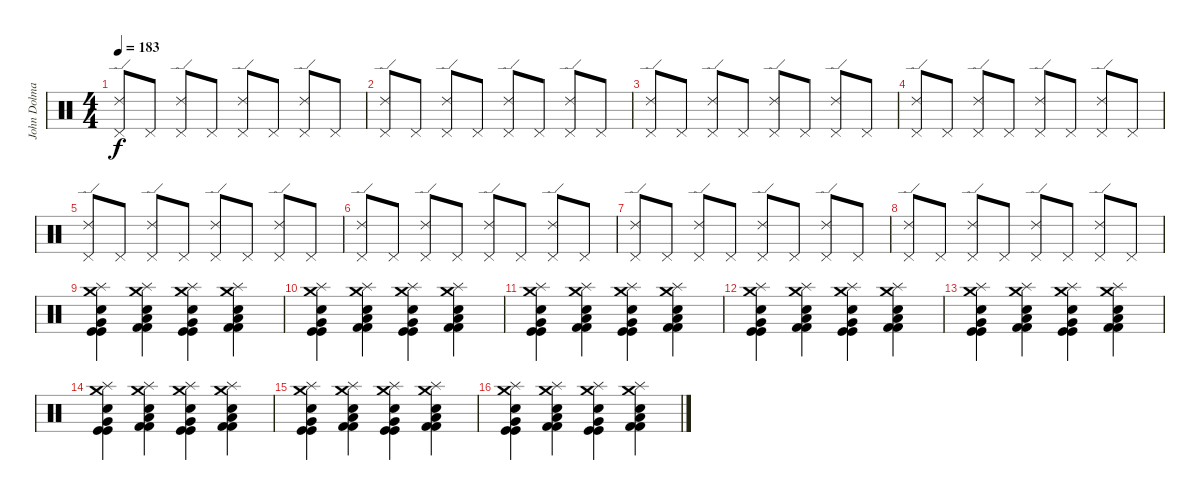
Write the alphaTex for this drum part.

\track ("John Dolmayan" "John Dolma") {instrument percussion}
\staff {score}
\articulation defaults
\ts (4 4)
\tempo 183
\clef neutral
\ks c
("Pedal Hi-Hat (hit)" "Ride (edge) 2").8{dy f} "Pedal Hi-Hat (hit)".8 ("Pedal Hi-Hat (hit)" "Ride (edge) 2").8 "Pedal Hi-Hat (hit)".8 ("Pedal Hi-Hat (hit)" "Ride (edge) 2").8 "Pedal Hi-Hat (hit)".8 ("Pedal Hi-Hat (hit)" "Ride (edge) 2").8 "Pedal Hi-Hat (hit)".8 |
("Pedal Hi-Hat (hit)" "Ride (edge) 2").8 "Pedal Hi-Hat (hit)".8 ("Pedal Hi-Hat (hit)" "Ride (edge) 2").8 "Pedal Hi-Hat (hit)".8 ("Pedal Hi-Hat (hit)" "Ride (edge) 2").8 "Pedal Hi-Hat (hit)".8 ("Pedal Hi-Hat (hit)" "Ride (edge) 2").8 "Pedal Hi-Hat (hit)".8 |
("Pedal Hi-Hat (hit)" "Ride (edge) 2").8 "Pedal Hi-Hat (hit)".8 ("Pedal Hi-Hat (hit)" "Ride (edge) 2").8 "Pedal Hi-Hat (hit)".8 ("Pedal Hi-Hat (hit)" "Ride (edge) 2").8 "Pedal Hi-Hat (hit)".8 ("Pedal Hi-Hat (hit)" "Ride (edge) 2").8 "Pedal Hi-Hat (hit)".8 |
("Pedal Hi-Hat (hit)" "Ride (edge) 2").8 "Pedal Hi-Hat (hit)".8 ("Pedal Hi-Hat (hit)" "Ride (edge) 2").8 "Pedal Hi-Hat (hit)".8 ("Pedal Hi-Hat (hit)" "Ride (edge) 2").8 "Pedal Hi-Hat (hit)".8 ("Pedal Hi-Hat (hit)" "Ride (edge) 2").8 "Pedal Hi-Hat (hit)".8 |
("Pedal Hi-Hat (hit)" "Ride (edge) 2").8 "Pedal Hi-Hat (hit)".8 ("Pedal Hi-Hat (hit)" "Ride (edge) 2").8 "Pedal Hi-Hat (hit)".8 ("Pedal Hi-Hat (hit)" "Ride (edge) 2").8 "Pedal Hi-Hat (hit)".8 ("Pedal Hi-Hat (hit)" "Ride (edge) 2").8 "Pedal Hi-Hat (hit)".8 |
("Pedal Hi-Hat (hit)" "Ride (edge) 2").8 "Pedal Hi-Hat (hit)".8 ("Pedal Hi-Hat (hit)" "Ride (edge) 2").8 "Pedal Hi-Hat (hit)".8 ("Pedal Hi-Hat (hit)" "Ride (edge) 2").8 "Pedal Hi-Hat (hit)".8 ("Pedal Hi-Hat (hit)" "Ride (edge) 2").8 "Pedal Hi-Hat (hit)".8 |
("Pedal Hi-Hat (hit)" "Ride (edge) 2").8 "Pedal Hi-Hat (hit)".8 ("Pedal Hi-Hat (hit)" "Ride (edge) 2").8 "Pedal Hi-Hat (hit)".8 ("Pedal Hi-Hat (hit)" "Ride (edge) 2").8 "Pedal Hi-Hat (hit)".8 ("Pedal Hi-Hat (hit)" "Ride (edge) 2").8 "Pedal Hi-Hat (hit)".8 |
("Pedal Hi-Hat (hit)" "Ride (edge) 2").8 "Pedal Hi-Hat (hit)".8 ("Pedal Hi-Hat (hit)" "Ride (edge) 2").8 "Pedal Hi-Hat (hit)".8 ("Pedal Hi-Hat (hit)" "Ride (edge) 2").8 "Pedal Hi-Hat (hit)".8 ("Pedal Hi-Hat (hit)" "Ride (edge) 2").8 "Pedal Hi-Hat (hit)".8 |
("Crash medium (hit)" "Kick (hit)" "Kick (hit)" "Electric Snare (hit)" "Very Low Tom (hit)" "Splash (hit)").4 ("Crash medium (hit)" "Kick (hit) 2" "Kick (hit) 2" "Electric Snare (hit)" "Low Tom (hit)" "Splash (hit)").4 ("Crash medium (hit)" "Kick (hit)" "Kick (hit)" "Electric Snare (hit)" "Very Low Tom (hit)" "Splash (hit)").4 ("Crash medium (hit)" "Kick (hit) 2" "Kick (hit) 2" "Electric Snare (hit)" "Low Tom (hit)" "Splash (hit)").4 |
("Crash medium (hit)" "Kick (hit)" "Kick (hit)" "Electric Snare (hit)" "Very Low Tom (hit)" "Splash (hit)").4 ("Crash medium (hit)" "Kick (hit) 2" "Kick (hit) 2" "Electric Snare (hit)" "Low Tom (hit)" "Splash (hit)").4 ("Crash medium (hit)" "Kick (hit)" "Kick (hit)" "Electric Snare (hit)" "Very Low Tom (hit)" "Splash (hit)").4 ("Crash medium (hit)" "Kick (hit) 2" "Kick (hit) 2" "Electric Snare (hit)" "Low Tom (hit)" "Splash (hit)").4 |
("Crash medium (hit)" "Kick (hit)" "Kick (hit)" "Electric Snare (hit)" "Very Low Tom (hit)" "Splash (hit)").4 ("Crash medium (hit)" "Kick (hit) 2" "Kick (hit) 2" "Electric Snare (hit)" "Low Tom (hit)" "Splash (hit)").4 ("Crash medium (hit)" "Kick (hit)" "Kick (hit)" "Electric Snare (hit)" "Very Low Tom (hit)" "Splash (hit)").4 ("Crash medium (hit)" "Kick (hit) 2" "Kick (hit) 2" "Electric Snare (hit)" "Low Tom (hit)" "Splash (hit)").4 |
("Crash medium (hit)" "Kick (hit)" "Kick (hit)" "Electric Snare (hit)" "Very Low Tom (hit)" "Splash (hit)").4 ("Crash medium (hit)" "Kick (hit) 2" "Kick (hit) 2" "Electric Snare (hit)" "Low Tom (hit)" "Splash (hit)").4 ("Crash medium (hit)" "Kick (hit)" "Kick (hit)" "Electric Snare (hit)" "Very Low Tom (hit)" "Splash (hit)").4 ("Crash medium (hit)" "Kick (hit) 2" "Kick (hit) 2" "Electric Snare (hit)" "Low Tom (hit)" "Splash (hit)").4 |
("Crash medium (hit)" "Kick (hit)" "Kick (hit)" "Electric Snare (hit)" "Very Low Tom (hit)" "Splash (hit)").4 ("Crash medium (hit)" "Kick (hit) 2" "Kick (hit) 2" "Electric Snare (hit)" "Low Tom (hit)" "Splash (hit)").4 ("Crash medium (hit)" "Kick (hit)" "Kick (hit)" "Electric Snare (hit)" "Very Low Tom (hit)" "Splash (hit)").4 ("Crash medium (hit)" "Kick (hit) 2" "Kick (hit) 2" "Electric Snare (hit)" "Low Tom (hit)" "Splash (hit)").4 |
("Crash medium (hit)" "Kick (hit)" "Kick (hit)" "Electric Snare (hit)" "Very Low Tom (hit)" "Splash (hit)").4 ("Crash medium (hit)" "Kick (hit) 2" "Kick (hit) 2" "Electric Snare (hit)" "Low Tom (hit)" "Splash (hit)").4 ("Crash medium (hit)" "Kick (hit)" "Kick (hit)" "Electric Snare (hit)" "Very Low Tom (hit)" "Splash (hit)").4 ("Crash medium (hit)" "Kick (hit) 2" "Kick (hit) 2" "Electric Snare (hit)" "Low Tom (hit)" "Splash (hit)").4 |
("Crash medium (hit)" "Kick (hit)" "Kick (hit)" "Electric Snare (hit)" "Very Low Tom (hit)" "Splash (hit)").4 ("Crash medium (hit)" "Kick (hit) 2" "Kick (hit) 2" "Electric Snare (hit)" "Low Tom (hit)" "Splash (hit)").4 ("Crash medium (hit)" "Kick (hit)" "Kick (hit)" "Electric Snare (hit)" "Very Low Tom (hit)" "Splash (hit)").4 ("Crash medium (hit)" "Kick (hit) 2" "Kick (hit) 2" "Electric Snare (hit)" "Low Tom (hit)" "Splash (hit)").4 |
("Crash medium (hit)" "Kick (hit)" "Kick (hit)" "Electric Snare (hit)" "Very Low Tom (hit)" "Splash (hit)").4 ("Crash medium (hit)" "Kick (hit) 2" "Kick (hit) 2" "Electric Snare (hit)" "Low Tom (hit)" "Splash (hit)").4 ("Crash medium (hit)" "Kick (hit)" "Kick (hit)" "Electric Snare (hit)" "Very Low Tom (hit)" "Splash (hit)").4 ("Crash medium (hit)" "Kick (hit) 2" "Kick (hit) 2" "Electric Snare (hit)" "Low Tom (hit)" "Splash (hit)").4
